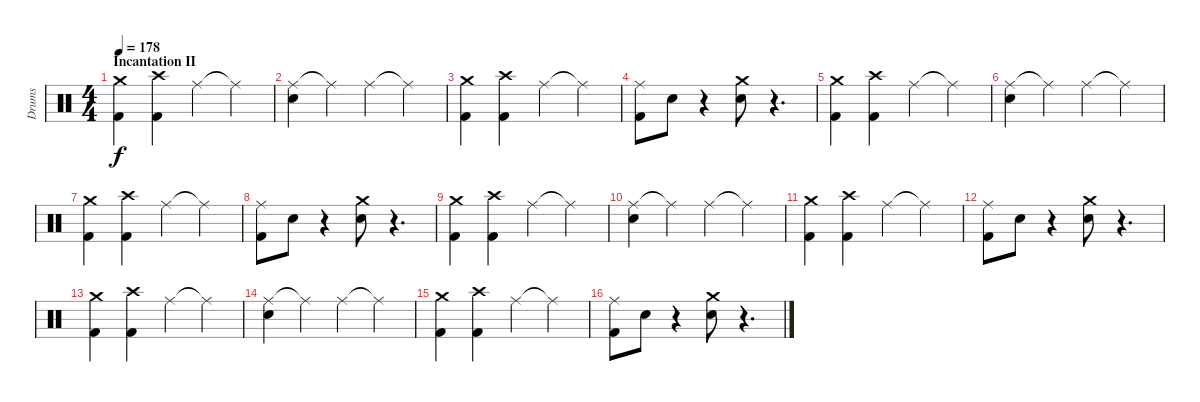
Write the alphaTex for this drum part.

\track ("Drums" "Drums") {instrument percussion}
\staff {score}
\articulation defaults
\ts (4 4)
\section ("" "Incantation II")
\tempo 178
\clef neutral
\ks c
("Crash medium (hit)" "Kick (hit) 2").4{dy f} ("Crash high (hit)" "Kick (hit) 2").4 "Ride (middle)".4 "Ride (middle)"{t}.4 |
("Ride (middle)" "Electric Snare (hit)").4 "Ride (middle)"{t}.4 "Ride (middle)".4 "Ride (middle)"{t}.4 |
("Crash medium (hit)" "Kick (hit) 2").4 ("Crash high (hit)" "Kick (hit) 2").4 "Ride (middle)".4 "Ride (middle)"{t}.4 |
("Ride (middle)" "Kick (hit) 2").8 "Electric Snare (hit)".8 r.4 ("Crash medium (hit)" "Electric Snare (hit)").8 r.4{d} |
("Crash medium (hit)" "Kick (hit) 2").4 ("Crash high (hit)" "Kick (hit) 2").4 "Ride (middle)".4 "Ride (middle)"{t}.4 |
("Ride (middle)" "Electric Snare (hit)").4 "Ride (middle)"{t}.4 "Ride (middle)".4 "Ride (middle)"{t}.4 |
("Crash medium (hit)" "Kick (hit) 2").4 ("Crash high (hit)" "Kick (hit) 2").4 "Ride (middle)".4 "Ride (middle)"{t}.4 |
("Ride (middle)" "Kick (hit) 2").8 "Electric Snare (hit)".8 r.4 ("Crash medium (hit)" "Electric Snare (hit)").8 r.4{d} |
("Crash medium (hit)" "Kick (hit) 2").4 ("Crash high (hit)" "Kick (hit) 2").4 "Ride (middle)".4 "Ride (middle)"{t}.4 |
("Ride (middle)" "Electric Snare (hit)").4 "Ride (middle)"{t}.4 "Ride (middle)".4 "Ride (middle)"{t}.4 |
("Crash medium (hit)" "Kick (hit) 2").4 ("Crash high (hit)" "Kick (hit) 2").4 "Ride (middle)".4 "Ride (middle)"{t}.4 |
("Ride (middle)" "Kick (hit) 2").8 "Electric Snare (hit)".8 r.4 ("Crash medium (hit)" "Electric Snare (hit)").8 r.4{d} |
("Crash medium (hit)" "Kick (hit) 2").4 ("Crash high (hit)" "Kick (hit) 2").4 "Ride (middle)".4 "Ride (middle)"{t}.4 |
("Ride (middle)" "Electric Snare (hit)").4 "Ride (middle)"{t}.4 "Ride (middle)".4 "Ride (middle)"{t}.4 |
("Crash medium (hit)" "Kick (hit) 2").4 ("Crash high (hit)" "Kick (hit) 2").4 "Ride (middle)".4 "Ride (middle)"{t}.4 |
("Ride (middle)" "Kick (hit) 2").8 "Electric Snare (hit)".8 r.4 ("Crash medium (hit)" "Electric Snare (hit)").8 r.4{d}
